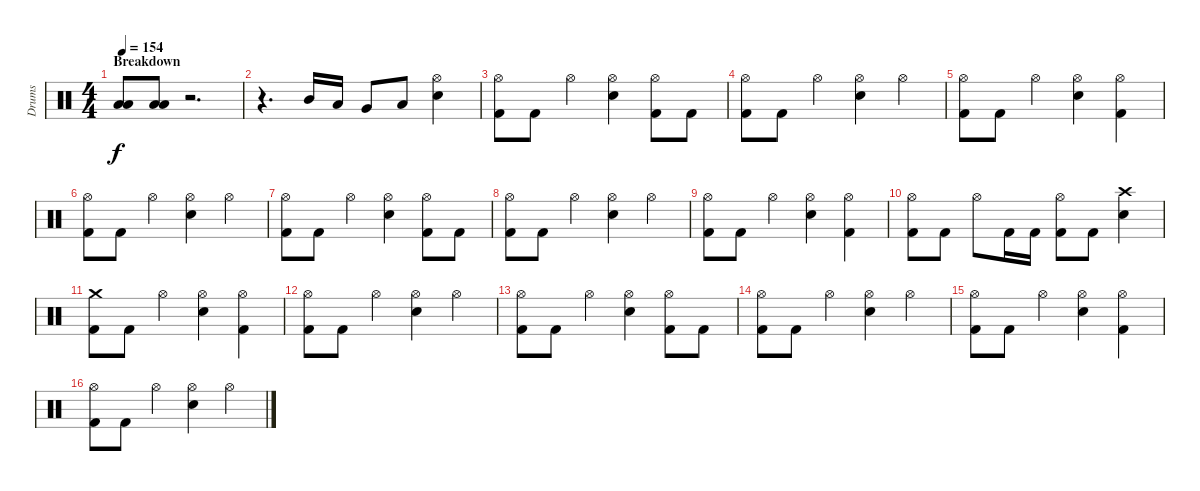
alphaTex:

\track ("Drums" "Drums") {instrument percussion}
\staff {score}
\articulation defaults
\ts (4 4)
\section ("" "Breakdown")
\tempo 154
\clef neutral
\ks c
("Low Tom (hit)" "Low Floor Tom (hit)").8{dy f} ("Low Tom (hit)" "Low Floor Tom (hit)").8 r.2{d} |
r.4{d} "Mid Tom (hit)".16 "Low Tom (hit)".16 "Very Low Tom (hit)".8 "Low Floor Tom (hit)".8 ("Hi-Hat (open)" "Electric Snare (hit)").4 |
("Hi-Hat (open)" "Kick (hit) 2").8 "Kick (hit) 2".8 "Hi-Hat (open)".4 ("Hi-Hat (open)" "Electric Snare (hit)").4 ("Hi-Hat (open)" "Kick (hit) 2").8 "Kick (hit) 2".8 |
("Hi-Hat (open)" "Kick (hit) 2").8 "Kick (hit) 2".8 "Hi-Hat (open)".4 ("Hi-Hat (open)" "Electric Snare (hit)").4 "Hi-Hat (open)".4 |
("Hi-Hat (open)" "Kick (hit) 2").8 "Kick (hit) 2".8 "Hi-Hat (open)".4 ("Hi-Hat (open)" "Electric Snare (hit)").4 ("Hi-Hat (open)" "Kick (hit) 2").4 |
("Hi-Hat (open)" "Kick (hit) 2").8 "Kick (hit) 2".8 "Hi-Hat (open)".4 ("Hi-Hat (open)" "Electric Snare (hit)").4 "Hi-Hat (open)".4 |
("Hi-Hat (open)" "Kick (hit) 2").8 "Kick (hit) 2".8 "Hi-Hat (open)".4 ("Hi-Hat (open)" "Electric Snare (hit)").4 ("Hi-Hat (open)" "Kick (hit) 2").8 "Kick (hit) 2".8 |
("Hi-Hat (open)" "Kick (hit) 2").8 "Kick (hit) 2".8 "Hi-Hat (open)".4 ("Hi-Hat (open)" "Electric Snare (hit)").4 "Hi-Hat (open)".4 |
("Hi-Hat (open)" "Kick (hit) 2").8 "Kick (hit) 2".8 "Hi-Hat (open)".4 ("Hi-Hat (open)" "Electric Snare (hit)").4 ("Hi-Hat (open)" "Kick (hit) 2").4 |
("Hi-Hat (open)" "Kick (hit) 2").8 "Kick (hit) 2".8 "Hi-Hat (open)".8 "Kick (hit) 2".16 "Kick (hit) 2".16 ("Hi-Hat (open)" "Kick (hit) 2").8 "Kick (hit) 2".8 ("Crash high (hit)" "Electric Snare (hit)").4 |
("Crash medium (hit)" "Kick (hit) 2").8 "Kick (hit) 2".8 "Hi-Hat (open)".4 ("Hi-Hat (open)" "Electric Snare (hit)").4 ("Hi-Hat (open)" "Kick (hit) 2").4 |
("Hi-Hat (open)" "Kick (hit) 2").8 "Kick (hit) 2".8 "Hi-Hat (open)".4 ("Hi-Hat (open)" "Electric Snare (hit)").4 "Hi-Hat (open)".4 |
("Hi-Hat (open)" "Kick (hit) 2").8 "Kick (hit) 2".8 "Hi-Hat (open)".4 ("Hi-Hat (open)" "Electric Snare (hit)").4 ("Hi-Hat (open)" "Kick (hit) 2").8 "Kick (hit) 2".8 |
("Hi-Hat (open)" "Kick (hit) 2").8 "Kick (hit) 2".8 "Hi-Hat (open)".4 ("Hi-Hat (open)" "Electric Snare (hit)").4 "Hi-Hat (open)".4 |
("Hi-Hat (open)" "Kick (hit) 2").8 "Kick (hit) 2".8 "Hi-Hat (open)".4 ("Hi-Hat (open)" "Electric Snare (hit)").4 ("Hi-Hat (open)" "Kick (hit) 2").4 |
("Hi-Hat (open)" "Kick (hit) 2").8 "Kick (hit) 2".8 "Hi-Hat (open)".4 ("Hi-Hat (open)" "Electric Snare (hit)").4 "Hi-Hat (open)".4
